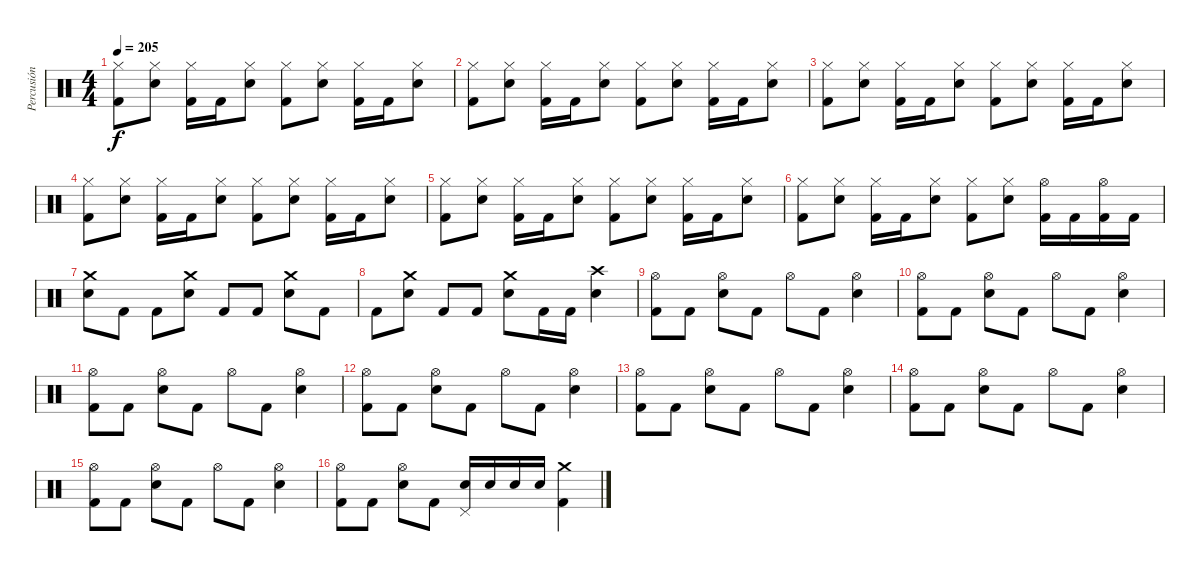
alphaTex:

\track ("Percusión" "Percusión") {instrument percussion}
\staff {score}
\articulation defaults
\ts (4 4)
\tempo 205
\clef neutral
\ks c
("Hi-Hat (closed)" "Kick (hit) 2").8{dy f} ("Hi-Hat (closed)" "Snare (hit) 2").8 ("Hi-Hat (closed)" "Kick (hit) 2").16 "Kick (hit) 2".16 ("Hi-Hat (closed)" "Snare (hit) 2").8 ("Hi-Hat (closed)" "Kick (hit) 2").8 ("Hi-Hat (closed)" "Snare (hit) 2").8 ("Hi-Hat (closed)" "Kick (hit) 2").16 "Kick (hit) 2".16 ("Hi-Hat (closed)" "Snare (hit) 2").8 |
("Hi-Hat (closed)" "Kick (hit) 2").8 ("Hi-Hat (closed)" "Snare (hit) 2").8 ("Hi-Hat (closed)" "Kick (hit) 2").16 "Kick (hit) 2".16 ("Hi-Hat (closed)" "Snare (hit) 2").8 ("Hi-Hat (closed)" "Kick (hit) 2").8 ("Hi-Hat (closed)" "Snare (hit) 2").8 ("Hi-Hat (closed)" "Kick (hit) 2").16 "Kick (hit) 2".16 ("Hi-Hat (closed)" "Snare (hit) 2").8 |
("Hi-Hat (closed)" "Kick (hit) 2").8 ("Hi-Hat (closed)" "Snare (hit) 2").8 ("Hi-Hat (closed)" "Kick (hit) 2").16 "Kick (hit) 2".16 ("Hi-Hat (closed)" "Snare (hit) 2").8 ("Hi-Hat (closed)" "Kick (hit) 2").8 ("Hi-Hat (closed)" "Snare (hit) 2").8 ("Hi-Hat (closed)" "Kick (hit) 2").16 "Kick (hit) 2".16 ("Hi-Hat (closed)" "Snare (hit) 2").8 |
("Hi-Hat (closed)" "Kick (hit) 2").8 ("Hi-Hat (closed)" "Snare (hit) 2").8 ("Hi-Hat (closed)" "Kick (hit) 2").16 "Kick (hit) 2".16 ("Hi-Hat (closed)" "Snare (hit) 2").8 ("Hi-Hat (closed)" "Kick (hit) 2").8 ("Hi-Hat (closed)" "Snare (hit) 2").8 ("Hi-Hat (closed)" "Kick (hit) 2").16 "Kick (hit) 2".16 ("Hi-Hat (closed)" "Snare (hit) 2").8 |
("Hi-Hat (closed)" "Kick (hit) 2").8 ("Hi-Hat (closed)" "Snare (hit) 2").8 ("Hi-Hat (closed)" "Kick (hit) 2").16 "Kick (hit) 2".16 ("Hi-Hat (closed)" "Snare (hit) 2").8 ("Hi-Hat (closed)" "Kick (hit) 2").8 ("Hi-Hat (closed)" "Snare (hit) 2").8 ("Hi-Hat (closed)" "Kick (hit) 2").16 "Kick (hit) 2".16 ("Hi-Hat (closed)" "Snare (hit) 2").8 |
("Hi-Hat (closed)" "Kick (hit) 2").8 ("Hi-Hat (closed)" "Snare (hit) 2").8 ("Hi-Hat (closed)" "Kick (hit) 2").16 "Kick (hit) 2".16 ("Hi-Hat (closed)" "Snare (hit) 2").8 ("Hi-Hat (closed)" "Kick (hit) 2").8 ("Hi-Hat (closed)" "Snare (hit) 2").8 ("Hi-Hat (open)" "Kick (hit) 2").16 "Kick (hit) 2".16 ("Hi-Hat (open)" "Kick (hit) 2").16 "Kick (hit) 2".16 |
("Crash medium (hit)" "Snare (hit) 2").8 "Kick (hit) 2".8 "Kick (hit) 2".8 ("Crash medium (hit)" "Snare (hit) 2").8 "Kick (hit) 2".8 "Kick (hit) 2".8 ("Crash medium (hit)" "Snare (hit) 2").8 "Kick (hit) 2".8 |
"Kick (hit) 2".8 ("Crash medium (hit)" "Snare (hit) 2").8 "Kick (hit) 2".8 "Kick (hit) 2".8 ("Crash medium (hit)" "Snare (hit) 2").8 "Kick (hit) 2".16 "Kick (hit) 2".16 ("Snare (hit) 2" "Crash high (hit)").4 |
("Hi-Hat (open)" "Kick (hit) 2").8 "Kick (hit) 2".8 ("Hi-Hat (open)" "Snare (hit) 2").8 "Kick (hit) 2".8 "Hi-Hat (open)".8 "Kick (hit) 2".8 ("Snare (hit) 2" "Hi-Hat (open)").4 |
("Hi-Hat (open)" "Kick (hit) 2").8 "Kick (hit) 2".8 ("Hi-Hat (open)" "Snare (hit) 2").8 "Kick (hit) 2".8 "Hi-Hat (open)".8 "Kick (hit) 2".8 ("Snare (hit) 2" "Hi-Hat (open)").4 |
("Hi-Hat (open)" "Kick (hit) 2").8 "Kick (hit) 2".8 ("Hi-Hat (open)" "Snare (hit) 2").8 "Kick (hit) 2".8 "Hi-Hat (open)".8 "Kick (hit) 2".8 ("Snare (hit) 2" "Hi-Hat (open)").4 |
("Hi-Hat (open)" "Kick (hit) 2").8 "Kick (hit) 2".8 ("Hi-Hat (open)" "Snare (hit) 2").8 "Kick (hit) 2".8 "Hi-Hat (open)".8 "Kick (hit) 2".8 ("Snare (hit) 2" "Hi-Hat (open)").4 |
("Hi-Hat (open)" "Kick (hit) 2").8 "Kick (hit) 2".8 ("Hi-Hat (open)" "Snare (hit) 2").8 "Kick (hit) 2".8 "Hi-Hat (open)".8 "Kick (hit) 2".8 ("Snare (hit) 2" "Hi-Hat (open)").4 |
("Hi-Hat (open)" "Kick (hit) 2").8 "Kick (hit) 2".8 ("Hi-Hat (open)" "Snare (hit) 2").8 "Kick (hit) 2".8 "Hi-Hat (open)".8 "Kick (hit) 2".8 ("Snare (hit) 2" "Hi-Hat (open)").4 |
("Hi-Hat (open)" "Kick (hit) 2").8 "Kick (hit) 2".8 ("Hi-Hat (open)" "Snare (hit) 2").8 "Kick (hit) 2".8 "Hi-Hat (open)".8 "Kick (hit) 2".8 ("Snare (hit) 2" "Hi-Hat (open)").4 |
("Hi-Hat (open)" "Kick (hit) 2").8 "Kick (hit) 2".8 ("Hi-Hat (open)" "Snare (hit) 2").8 "Kick (hit) 2".8 ("Pedal Hi-Hat (hit)" "Snare (hit) 2").16 "Snare (hit) 2".16 "Snare (hit) 2".16 "Snare (hit) 2".16 ("Crash medium (hit)" "Kick (hit) 2").4
